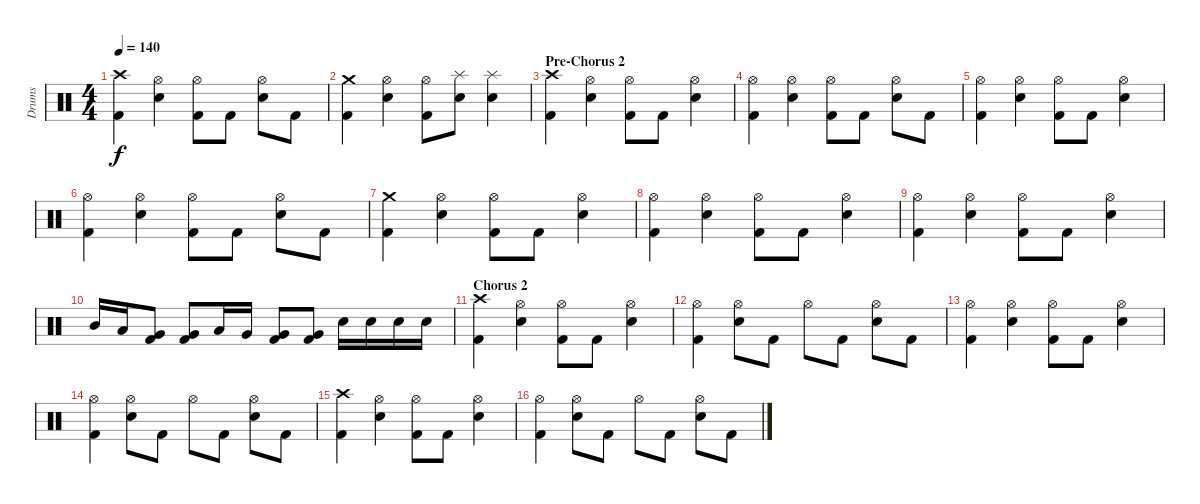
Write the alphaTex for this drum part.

\track ("Drums" "Drums") {instrument percussion}
\staff {score}
\articulation defaults
\ts (4 4)
\tempo 140
\clef neutral
\ks c
("Crash high (hit)" "Kick (hit) 2").4{dy f} ("Hi-Hat (open)" "Electric Snare (hit)").4 ("Hi-Hat (open)" "Kick (hit) 2").8 "Kick (hit) 2".8 ("Hi-Hat (open)" "Electric Snare (hit)").8 "Kick (hit) 2".8 |
("Crash medium (hit)" "Kick (hit) 2").4 ("Hi-Hat (open)" "Electric Snare (hit)").4 ("Hi-Hat (open)" "Kick (hit) 2").8 ("Splash (hit)" "Electric Snare (hit)").8 ("Splash (hit)" "Electric Snare (hit)").4 |
\section ("" "Pre-Chorus 2")
("Crash high (hit)" "Kick (hit) 2").4 ("Hi-Hat (open)" "Electric Snare (hit)").4 ("Hi-Hat (open)" "Kick (hit) 2").8 "Kick (hit) 2".8 ("Hi-Hat (open)" "Electric Snare (hit)").4 |
("Hi-Hat (open)" "Kick (hit) 2").4 ("Hi-Hat (open)" "Electric Snare (hit)").4 ("Hi-Hat (open)" "Kick (hit) 2").8 "Kick (hit) 2".8 ("Hi-Hat (open)" "Electric Snare (hit)").8 "Kick (hit) 2".8 |
("Hi-Hat (open)" "Kick (hit) 2").4 ("Hi-Hat (open)" "Electric Snare (hit)").4 ("Hi-Hat (open)" "Kick (hit) 2").8 "Kick (hit) 2".8 ("Hi-Hat (open)" "Electric Snare (hit)").4 |
("Hi-Hat (open)" "Kick (hit) 2").4 ("Hi-Hat (open)" "Electric Snare (hit)").4 ("Hi-Hat (open)" "Kick (hit) 2").8 "Kick (hit) 2".8 ("Hi-Hat (open)" "Electric Snare (hit)").8 "Kick (hit) 2".8 |
("Crash medium (hit)" "Kick (hit) 2").4 ("Hi-Hat (open)" "Electric Snare (hit)").4 ("Hi-Hat (open)" "Kick (hit) 2").8 "Kick (hit) 2".8 ("Hi-Hat (open)" "Electric Snare (hit)").4 |
("Hi-Hat (open)" "Kick (hit) 2").4 ("Hi-Hat (open)" "Electric Snare (hit)").4 ("Hi-Hat (open)" "Kick (hit) 2").8 "Kick (hit) 2".8 ("Hi-Hat (open)" "Electric Snare (hit)").4 |
("Hi-Hat (open)" "Kick (hit) 2").4 ("Hi-Hat (open)" "Electric Snare (hit)").4 ("Hi-Hat (open)" "Kick (hit) 2").8 "Kick (hit) 2".8 ("Hi-Hat (open)" "Electric Snare (hit)").4 |
"Mid Tom (hit)".16 "Low Tom (hit)".16 ("Very Low Tom (hit)" "Kick (hit) 2").8 ("Very Low Tom (hit)" "Kick (hit) 2").8 "Low Tom (hit)".16 "Very Low Tom (hit)".16 ("Very Low Tom (hit)" "Kick (hit) 2").8 ("Very Low Tom (hit)" "Kick (hit) 2").8 "Electric Snare (hit)".16 "Electric Snare (hit)".16 "Electric Snare (hit)".16 "Electric Snare (hit)".16 |
\section ("" "Chorus 2")
("Crash high (hit)" "Kick (hit) 2").4 ("Hi-Hat (open)" "Electric Snare (hit)").4 ("Hi-Hat (open)" "Kick (hit) 2").8 "Kick (hit) 2".8 ("Hi-Hat (open)" "Electric Snare (hit)").4 |
("Hi-Hat (open)" "Kick (hit) 2").4 ("Hi-Hat (open)" "Electric Snare (hit)").8 "Kick (hit) 2".8 "Hi-Hat (open)".8 "Kick (hit) 2".8 ("Hi-Hat (open)" "Electric Snare (hit)").8 "Kick (hit) 2".8 |
("Hi-Hat (open)" "Kick (hit) 2").4 ("Hi-Hat (open)" "Electric Snare (hit)").4 ("Hi-Hat (open)" "Kick (hit) 2").8 "Kick (hit) 2".8 ("Hi-Hat (open)" "Electric Snare (hit)").4 |
("Hi-Hat (open)" "Kick (hit) 2").4 ("Hi-Hat (open)" "Electric Snare (hit)").8 "Kick (hit) 2".8 "Hi-Hat (open)".8 "Kick (hit) 2".8 ("Hi-Hat (open)" "Electric Snare (hit)").8 "Kick (hit) 2".8 |
("Crash high (hit)" "Kick (hit) 2").4 ("Hi-Hat (open)" "Electric Snare (hit)").4 ("Hi-Hat (open)" "Kick (hit) 2").8 "Kick (hit) 2".8 ("Hi-Hat (open)" "Electric Snare (hit)").4 |
("Hi-Hat (open)" "Kick (hit) 2").4 ("Hi-Hat (open)" "Electric Snare (hit)").8 "Kick (hit) 2".8 "Hi-Hat (open)".8 "Kick (hit) 2".8 ("Hi-Hat (open)" "Electric Snare (hit)").8 "Kick (hit) 2".8
